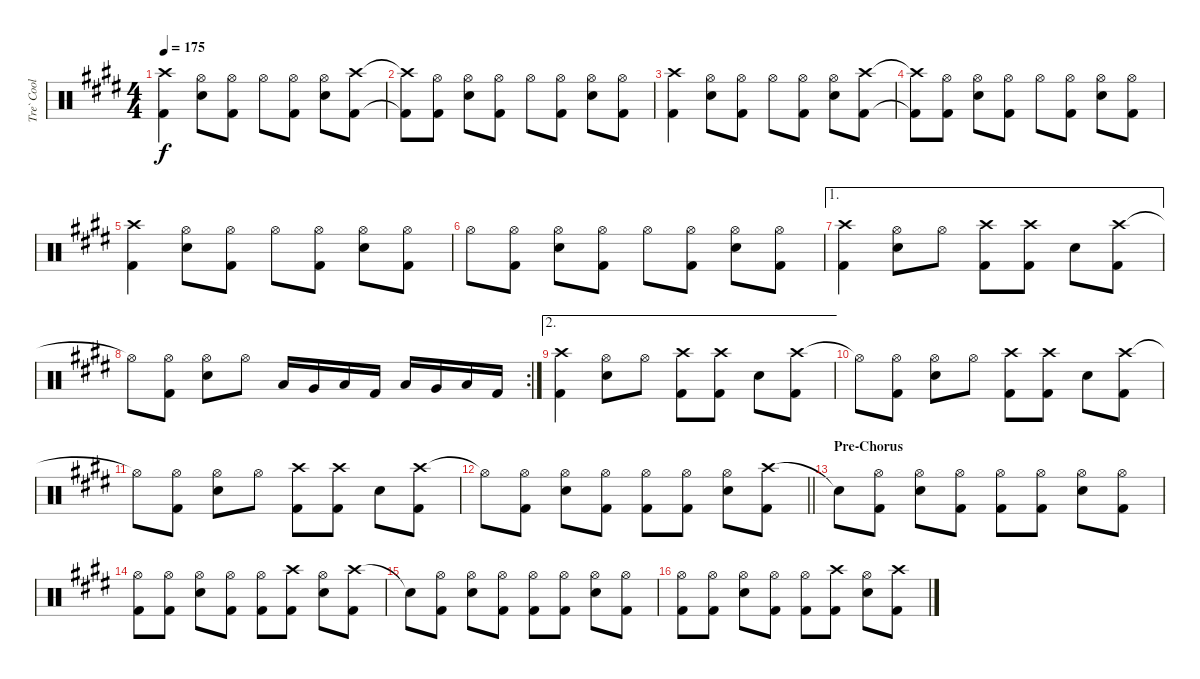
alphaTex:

\track ("Tre` Cool" "Tre` Cool") {instrument percussion}
\staff {score}
\articulation defaults
\ts (4 4)
\tempo 175
\clef neutral
\ks e
("Crash high (hit)" "Kick (hit) 2").4{dy f} ("Hi-Hat (open)" "Snare (hit) 2").8 ("Hi-Hat (open)" "Kick (hit) 2").8 "Hi-Hat (open)".8 ("Hi-Hat (open)" "Kick (hit) 2").8 ("Hi-Hat (open)" "Snare (hit) 2").8 ("Crash high (hit)" "Kick (hit) 2").8 |
("Crash high (hit)"{t} "Kick (hit) 2"{t}).8 ("Hi-Hat (open)" "Kick (hit) 2").8 ("Hi-Hat (open)" "Snare (hit) 2").8 ("Hi-Hat (open)" "Kick (hit) 2").8 "Hi-Hat (open)".8 ("Hi-Hat (open)" "Kick (hit) 2").8 ("Hi-Hat (open)" "Snare (hit) 2").8 ("Hi-Hat (open)" "Kick (hit) 2").8 |
("Crash high (hit)" "Kick (hit) 2").4 ("Hi-Hat (open)" "Snare (hit) 2").8 ("Hi-Hat (open)" "Kick (hit) 2").8 "Hi-Hat (open)".8 ("Hi-Hat (open)" "Kick (hit) 2").8 ("Hi-Hat (open)" "Snare (hit) 2").8 ("Crash high (hit)" "Kick (hit) 2").8 |
("Crash high (hit)"{t} "Kick (hit) 2"{t}).8 ("Hi-Hat (open)" "Kick (hit) 2").8 ("Hi-Hat (open)" "Snare (hit) 2").8 ("Hi-Hat (open)" "Kick (hit) 2").8 "Hi-Hat (open)".8 ("Hi-Hat (open)" "Kick (hit) 2").8 ("Hi-Hat (open)" "Snare (hit) 2").8 ("Hi-Hat (open)" "Kick (hit) 2").8 |
("Crash high (hit)" "Kick (hit) 2").4 ("Hi-Hat (open)" "Snare (hit) 2").8 ("Hi-Hat (open)" "Kick (hit) 2").8 "Hi-Hat (open)".8 ("Hi-Hat (open)" "Kick (hit) 2").8 ("Hi-Hat (open)" "Snare (hit) 2").8 ("Hi-Hat (open)" "Kick (hit) 2").8 |
"Hi-Hat (open)".8 ("Hi-Hat (open)" "Kick (hit) 2").8 ("Hi-Hat (open)" "Snare (hit) 2").8 ("Hi-Hat (open)" "Kick (hit) 2").8 "Hi-Hat (open)".8 ("Hi-Hat (open)" "Kick (hit) 2").8 ("Hi-Hat (open)" "Snare (hit) 2").8 ("Hi-Hat (open)" "Kick (hit) 2").8 |
\ae 1
("Crash high (hit)" "Kick (hit) 2").4 ("Hi-Hat (open)" "Snare (hit) 2").8 "Hi-Hat (open)".8 ("Crash high (hit)" "Kick (hit) 2").8 ("Crash high (hit)" "Kick (hit) 2").8 "Snare (hit) 2".8 ("Crash high (hit)" "Kick (hit) 2").8 |
\rc 2 "Hi-Hat (open)"{t}.8
("Hi-Hat (open)" "Kick (hit) 2").8 ("Hi-Hat (open)" "Snare (hit) 2").8 "Hi-Hat (open)".8 "Low Tom (hit)".16 "Very Low Tom (hit)".16 "Low Floor Tom (hit)".16 "Kick (hit) 2".16 "Low Tom (hit)".16 "Very Low Tom (hit)".16 "Low Floor Tom (hit)".16 "Kick (hit) 2".16 |
\ae 2
("Crash high (hit)" "Kick (hit) 2").4 ("Hi-Hat (open)" "Snare (hit) 2").8 "Hi-Hat (open)".8 ("Crash high (hit)" "Kick (hit) 2").8 ("Crash high (hit)" "Kick (hit) 2").8 "Snare (hit) 2".8 ("Crash high (hit)" "Kick (hit) 2").8 |
"Hi-Hat (open)"{t}.8 ("Hi-Hat (open)" "Kick (hit) 2").8 ("Hi-Hat (open)" "Snare (hit) 2").8 "Hi-Hat (open)".8 ("Crash high (hit)" "Kick (hit) 2").8 ("Crash high (hit)" "Kick (hit) 2").8 "Snare (hit) 2".8 ("Crash high (hit)" "Kick (hit) 2").8 |
"Hi-Hat (open)"{t}.8 ("Hi-Hat (open)" "Kick (hit) 2").8 ("Hi-Hat (open)" "Snare (hit) 2").8 "Hi-Hat (open)".8 ("Crash high (hit)" "Kick (hit) 2").8 ("Crash high (hit)" "Kick (hit) 2").8 "Snare (hit) 2".8 ("Crash high (hit)" "Kick (hit) 2").8 |
\barLineRight lightlight "Hi-Hat (open)"{t}.8
("Hi-Hat (open)" "Kick (hit) 2").8 ("Hi-Hat (open)" "Snare (hit) 2").8 ("Hi-Hat (open)" "Kick (hit) 2").8 ("Hi-Hat (open)" "Kick (hit) 2").8 ("Hi-Hat (open)" "Kick (hit) 2").8 ("Hi-Hat (open)" "Snare (hit) 2").8 ("Crash high (hit)" "Kick (hit) 2").8 |
\section ("" "Pre-Chorus")
"Snare (hit)"{t}.8 ("Hi-Hat (open)" "Kick (hit) 2").8 ("Hi-Hat (open)" "Snare (hit) 2").8 ("Hi-Hat (open)" "Kick (hit) 2").8 ("Hi-Hat (open)" "Kick (hit) 2").8 ("Hi-Hat (open)" "Kick (hit) 2").8 ("Hi-Hat (open)" "Snare (hit) 2").8 ("Hi-Hat (open)" "Kick (hit) 2").8 |
("Hi-Hat (open)" "Kick (hit) 2").8 ("Hi-Hat (open)" "Kick (hit) 2").8 ("Hi-Hat (open)" "Snare (hit) 2").8 ("Hi-Hat (open)" "Kick (hit) 2").8 ("Hi-Hat (open)" "Kick (hit) 2").8 ("Crash high (hit)" "Kick (hit) 2").8 ("Hi-Hat (open)" "Snare (hit) 2").8 ("Crash high (hit)" "Kick (hit) 2").8 |
"Snare (hit)"{t}.8 ("Hi-Hat (open)" "Kick (hit) 2").8 ("Hi-Hat (open)" "Snare (hit) 2").8 ("Hi-Hat (open)" "Kick (hit) 2").8 ("Hi-Hat (open)" "Kick (hit) 2").8 ("Hi-Hat (open)" "Kick (hit) 2").8 ("Hi-Hat (open)" "Snare (hit) 2").8 ("Hi-Hat (open)" "Kick (hit) 2").8 |
("Hi-Hat (open)" "Kick (hit) 2").8 ("Hi-Hat (open)" "Kick (hit) 2").8 ("Hi-Hat (open)" "Snare (hit) 2").8 ("Hi-Hat (open)" "Kick (hit) 2").8 ("Hi-Hat (open)" "Kick (hit) 2").8 ("Crash high (hit)" "Kick (hit) 2").8 ("Hi-Hat (open)" "Snare (hit) 2").8 ("Crash high (hit)" "Kick (hit) 2").8
